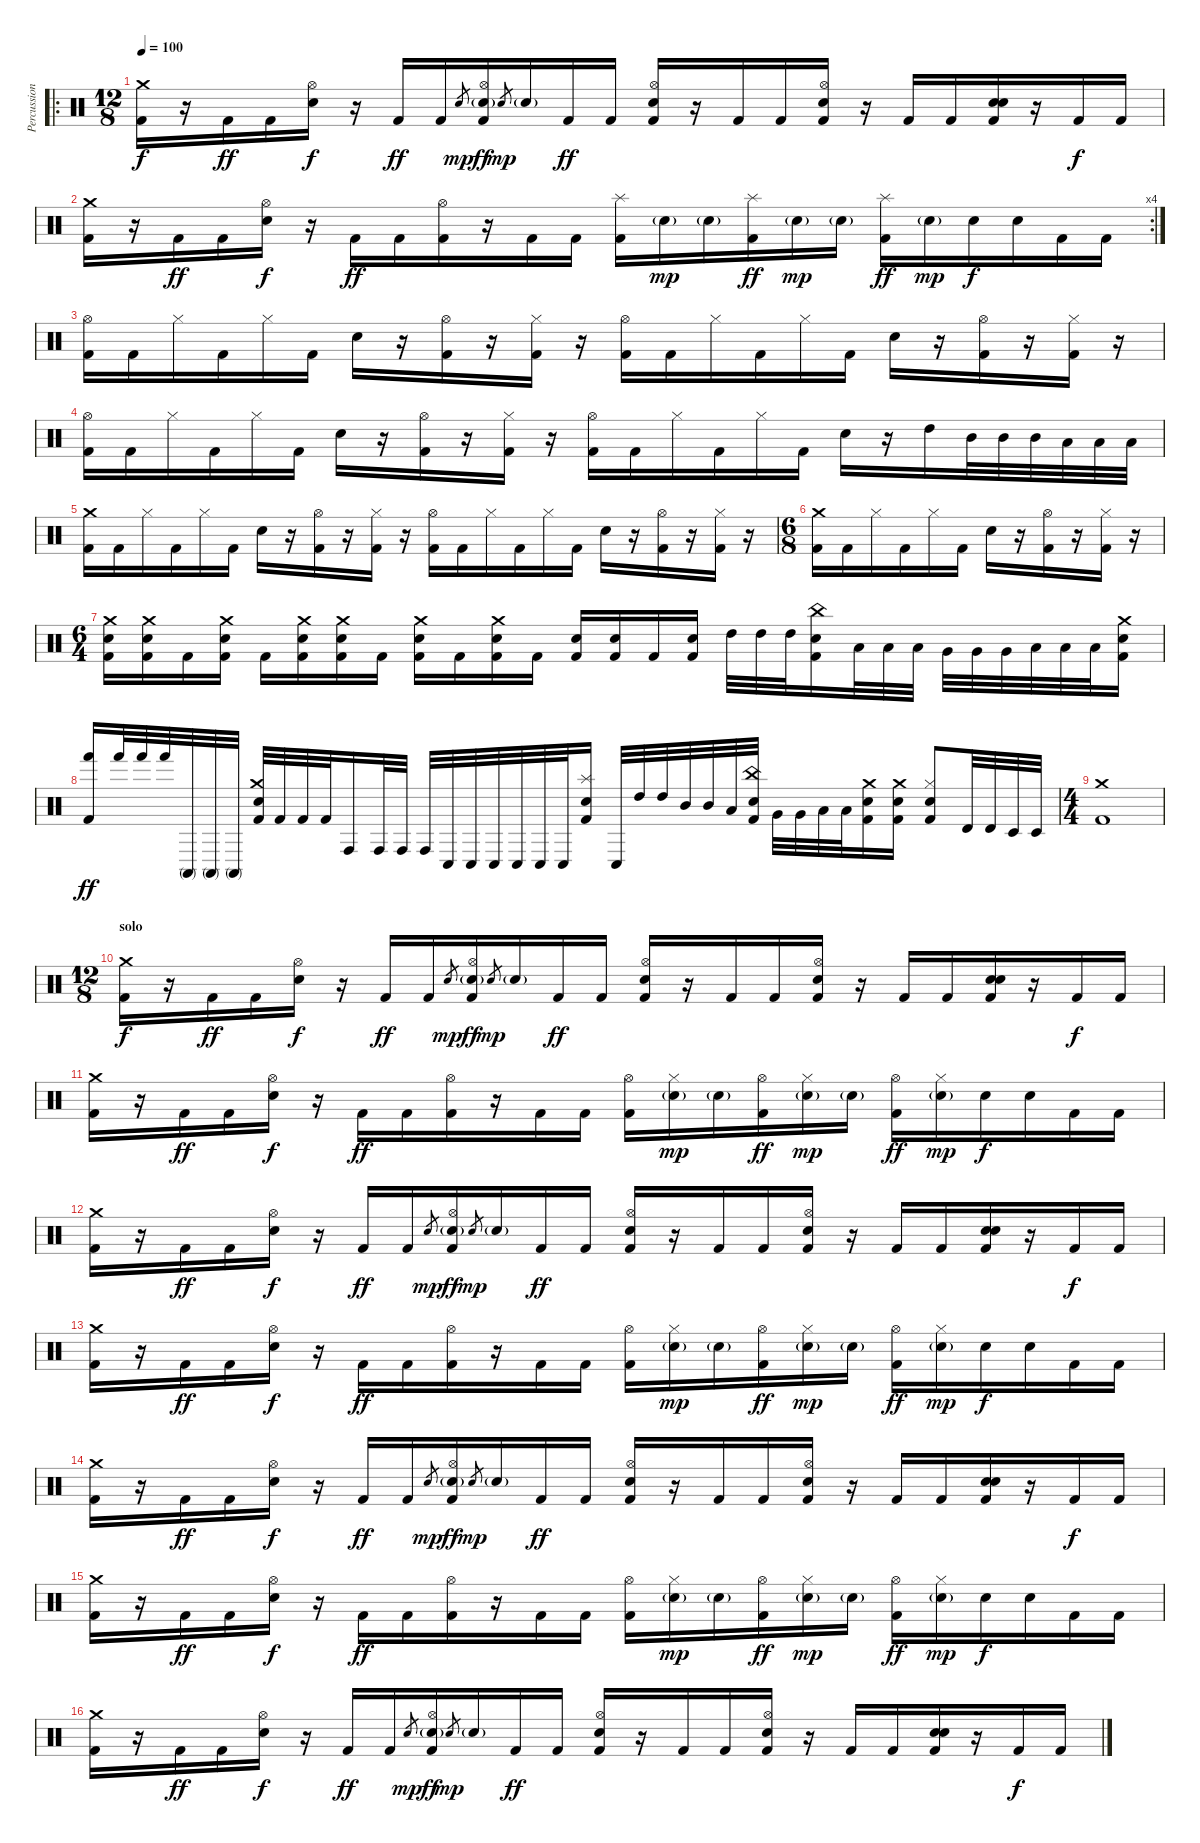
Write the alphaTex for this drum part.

\track ("Percussions" "Percussion") {instrument percussion}
\staff {score}
\articulation defaults
\ro
\ts (12 8)
\tempo 100
\clef neutral
\ks c
("Crash medium (hit)" "Kick (hit) 2").16{dy f} r.16 "Kick (hit) 2".16{dy ff} "Kick (hit) 2".16 ("Hi-Hat (open)" "Electric Snare (hit)").16{dy f} r.16 "Kick (hit) 2".16{dy ff} "Kick (hit) 2".16 "Electric Snare (hit)".8{gr dy mp} ("Hi-Hat (open)" "Electric Snare (hit)"{g} "Kick (hit) 2").16{dy ff} "Electric Snare (hit)".8{gr dy mp} "Electric Snare (hit)"{g}.16 "Kick (hit) 2".16{dy ff} "Kick (hit) 2".16 ("Hi-Hat (open)" "Electric Snare (hit)" "Kick (hit) 2").16 r.16 "Kick (hit) 2".16 "Kick (hit) 2".16 ("Hi-Hat (open)" "Electric Snare (hit)" "Kick (hit) 2").16 r.16 "Kick (hit) 2".16 "Kick (hit) 2".16 ("Electric Snare (hit)" "Electric Snare (hit)" "Kick (hit) 2").16 r.16 "Kick (hit) 2".16{dy f} "Kick (hit) 2".16 |
\rc 4
("Crash medium (hit)" "Kick (hit) 2").16 r.16 "Kick (hit) 2".16{dy ff} "Kick (hit) 2".16 ("Hi-Hat (open)" "Electric Snare (hit)").16{dy f} r.16 "Kick (hit) 2".16{dy ff} "Kick (hit) 2".16 ("Hi-Hat (open)" "Kick (hit) 2").16 r.16 "Kick (hit) 2".16 "Kick (hit) 2".16 ("Splash (hit)" "Kick (hit) 2").16 "Electric Snare (hit)"{g}.16{dy mp} "Electric Snare (hit)"{g}.16 ("Splash (hit)" "Kick (hit) 2").16{dy ff} "Electric Snare (hit)"{g}.16{dy mp} "Electric Snare (hit)"{g}.16 ("Splash (hit)" "Kick (hit) 2").16{dy ff} "Electric Snare (hit)"{g}.16{dy mp} "Electric Snare (hit)".16{dy f} "Electric Snare (hit)".16 "Kick (hit) 2".16 "Kick (hit) 2".16 |
("Hi-Hat (open)" "Kick (hit) 2").16 "Kick (hit) 2".16 "Hi-Hat (closed)".16 "Kick (hit) 2".16 "Hi-Hat (closed)".16 "Kick (hit) 2".16 "Electric Snare (hit)".16 r.16 ("Hi-Hat (open)" "Kick (hit) 2").16 r.16 ("Hi-Hat (closed)" "Kick (hit) 2").16 r.16 ("Hi-Hat (open)" "Kick (hit) 2").16 "Kick (hit) 2".16 "Hi-Hat (closed)".16 "Kick (hit) 2".16 "Hi-Hat (closed)".16 "Kick (hit) 2".16 "Electric Snare (hit)".16 r.16 ("Hi-Hat (open)" "Kick (hit) 2").16 r.16 ("Hi-Hat (closed)" "Kick (hit) 2").16 r.16 |
("Hi-Hat (open)" "Kick (hit) 2").16 "Kick (hit) 2".16 "Hi-Hat (closed)".16 "Kick (hit) 2".16 "Hi-Hat (closed)".16 "Kick (hit) 2".16 "Electric Snare (hit)".16 r.16 ("Hi-Hat (open)" "Kick (hit) 2").16 r.16 ("Hi-Hat (closed)" "Kick (hit) 2").16 r.16 ("Hi-Hat (open)" "Kick (hit) 2").16 "Kick (hit) 2".16 "Hi-Hat (closed)".16 "Kick (hit) 2".16 "Hi-Hat (closed)".16 "Kick (hit) 2".16 "Electric Snare (hit)".16 r.16 "High Tom (hit)".16 "Mid Tom (hit)".32 "Mid Tom (hit)".32 "Mid Tom (hit)".32 "Low Tom (hit)".32 "Low Tom (hit)".32 "Low Tom (hit)".32 |
("Crash medium (hit)" "Kick (hit) 2").16 "Kick (hit) 2".16 "Hi-Hat (closed)".16 "Kick (hit) 2".16 "Hi-Hat (closed)".16 "Kick (hit) 2".16 "Electric Snare (hit)".16 r.16 ("Hi-Hat (open)" "Kick (hit) 2").16 r.16 ("Hi-Hat (closed)" "Kick (hit) 2").16 r.16 ("Hi-Hat (open)" "Kick (hit) 2").16 "Kick (hit) 2".16 "Hi-Hat (closed)".16 "Kick (hit) 2".16 "Hi-Hat (closed)".16 "Kick (hit) 2".16 "Electric Snare (hit)".16 r.16 ("Hi-Hat (open)" "Kick (hit) 2").16 r.16 ("Hi-Hat (closed)" "Kick (hit) 2").16 r.16 |
\ts (6 8)
("Crash medium (hit)" "Kick (hit) 2").16 "Kick (hit) 2".16 "Hi-Hat (closed)".16 "Kick (hit) 2".16 "Hi-Hat (closed)".16 "Kick (hit) 2".16 "Electric Snare (hit)".16 r.16 ("Hi-Hat (open)" "Kick (hit) 2").16 r.16 ("Hi-Hat (closed)" "Kick (hit) 2").16 r.16 |
\ts (6 4)
("Crash medium (hit)" "Electric Snare (hit)" "Kick (hit) 2").16 ("Crash medium (hit)" "Electric Snare (hit)" "Kick (hit) 2").16 "Kick (hit) 2".16 ("Crash medium (hit)" "Electric Snare (hit)" "Kick (hit) 2").16 "Kick (hit) 2".16 ("Crash medium (hit)" "Electric Snare (hit)" "Kick (hit) 2").16 ("Crash medium (hit)" "Electric Snare (hit)" "Kick (hit) 2").16 "Kick (hit) 2".16 ("Crash medium (hit)" "Electric Snare (hit)" "Kick (hit) 2").16 "Kick (hit) 2".16 ("Crash medium (hit)" "Electric Snare (hit)" "Kick (hit) 2").16 "Kick (hit) 2".16 ("Electric Snare (hit)" "Kick (hit) 2").16 ("Electric Snare (hit)" "Kick (hit) 2").16 "Kick (hit) 2".16 ("Electric Snare (hit)" "Kick (hit) 2").16 "High Tom (hit)".32 "High Tom (hit)".32 "High Tom (hit)".32 ("China (hit)" "Electric Snare (hit)" "Kick (hit) 2").16 "Low Tom (hit)".32 "Low Tom (hit)".32 "Low Tom (hit)".32 "Very Low Tom (hit)".32 "Very Low Tom (hit)".32 "Very Low Tom (hit)".32 "Low Floor Tom (hit)".32 "Low Floor Tom (hit)".32 "Low Floor Tom (hit)".32 ("Crash medium (hit)" "Electric Snare (hit)" "Kick (hit) 2").16 |
("Kick (hit) 2" "Hand (hit)").16{dy ff} "Hand (hit)".32 "Hand (hit)".32 "Hand (hit)".32 "Conga high (mute)".32 "Conga high (mute)".32 "Conga high (mute)".32 ("Crash medium (hit)" "Electric Snare (hit)" "Kick (hit) 2").32 "Kick (hit) 2".32 "Kick (hit) 2".32 "Kick (hit) 2".32 "Conga high (hit)".16 "Conga high (hit)".32 "Conga high (hit)".32 "Conga high (hit)".32 "Conga low (hit)".32 "Conga low (hit)".32 "Conga low (hit)".32 "Conga low (hit)".32 "Conga low (hit)".32 "Conga low (hit)".32 ("Splash (hit)" "Electric Snare (hit)" "Kick (hit) 2").16 "Conga low (hit)".32 "High Tom (hit)".32 "High Tom (hit)".32 "Mid Tom (hit)".32 "Mid Tom (hit)".32 "Low Tom (hit)".32 ("China (hit)" "Electric Snare (hit)" "Kick (hit) 2").32 "Very Low Tom (hit)".32 "Very Low Tom (hit)".32 "Low Floor Tom (hit)".32 "Low Floor Tom (hit)".32 ("Crash medium (hit)" "Electric Snare (hit)" "Kick (hit) 2").16 ("Crash medium (hit)" "Electric Snare (hit)" "Kick (hit) 2").16 ("Hi-Hat (closed)" "Electric Snare (hit)" "Kick (hit) 2").8 "Timbale high (hit)".32 "Timbale high (hit)".32 "Timbale low (hit)".32 "Timbale low (hit)".32 |
\ts (4 4)
("Crash medium (hit)" "Kick (hit) 2").1 |
\ts (12 8)
\section ("" "solo")
("Crash medium (hit)" "Kick (hit) 2").16{dy f} r.16 "Kick (hit) 2".16{dy ff} "Kick (hit) 2".16 ("Hi-Hat (open)" "Electric Snare (hit)").16{dy f} r.16 "Kick (hit) 2".16{dy ff} "Kick (hit) 2".16 "Electric Snare (hit)".8{gr dy mp} ("Hi-Hat (open)" "Electric Snare (hit)"{g} "Kick (hit) 2").16{dy ff} "Electric Snare (hit)".8{gr dy mp} "Electric Snare (hit)"{g}.16 "Kick (hit) 2".16{dy ff} "Kick (hit) 2".16 ("Hi-Hat (open)" "Electric Snare (hit)" "Kick (hit) 2").16 r.16 "Kick (hit) 2".16 "Kick (hit) 2".16 ("Hi-Hat (open)" "Electric Snare (hit)" "Kick (hit) 2").16 r.16 "Kick (hit) 2".16 "Kick (hit) 2".16 ("Electric Snare (hit)" "Electric Snare (hit)" "Kick (hit) 2").16 r.16 "Kick (hit) 2".16{dy f} "Kick (hit) 2".16 |
("Crash medium (hit)" "Kick (hit) 2").16 r.16 "Kick (hit) 2".16{dy ff} "Kick (hit) 2".16 ("Hi-Hat (open)" "Electric Snare (hit)").16{dy f} r.16 "Kick (hit) 2".16{dy ff} "Kick (hit) 2".16 ("Hi-Hat (open)" "Kick (hit) 2").16 r.16 "Kick (hit) 2".16 "Kick (hit) 2".16 ("Hi-Hat (open)" "Kick (hit) 2").16 ("Hi-Hat (closed)" "Electric Snare (hit)"{g}).16{dy mp} "Electric Snare (hit)"{g}.16 ("Hi-Hat (open)" "Kick (hit) 2").16{dy ff} ("Hi-Hat (closed)" "Electric Snare (hit)"{g}).16{dy mp} "Electric Snare (hit)"{g}.16 ("Hi-Hat (open)" "Kick (hit) 2").16{dy ff} ("Hi-Hat (closed)" "Electric Snare (hit)"{g}).16{dy mp} "Electric Snare (hit)".16{dy f} "Electric Snare (hit)".16 "Kick (hit) 2".16 "Kick (hit) 2".16 |
("Crash medium (hit)" "Kick (hit) 2").16 r.16 "Kick (hit) 2".16{dy ff} "Kick (hit) 2".16 ("Hi-Hat (open)" "Electric Snare (hit)").16{dy f} r.16 "Kick (hit) 2".16{dy ff} "Kick (hit) 2".16 "Electric Snare (hit)".8{gr dy mp} ("Hi-Hat (open)" "Electric Snare (hit)"{g} "Kick (hit) 2").16{dy ff} "Electric Snare (hit)".8{gr dy mp} "Electric Snare (hit)"{g}.16 "Kick (hit) 2".16{dy ff} "Kick (hit) 2".16 ("Hi-Hat (open)" "Electric Snare (hit)" "Kick (hit) 2").16 r.16 "Kick (hit) 2".16 "Kick (hit) 2".16 ("Hi-Hat (open)" "Electric Snare (hit)" "Kick (hit) 2").16 r.16 "Kick (hit) 2".16 "Kick (hit) 2".16 ("Electric Snare (hit)" "Electric Snare (hit)" "Kick (hit) 2").16 r.16 "Kick (hit) 2".16{dy f} "Kick (hit) 2".16 |
("Crash medium (hit)" "Kick (hit) 2").16 r.16 "Kick (hit) 2".16{dy ff} "Kick (hit) 2".16 ("Hi-Hat (open)" "Electric Snare (hit)").16{dy f} r.16 "Kick (hit) 2".16{dy ff} "Kick (hit) 2".16 ("Hi-Hat (open)" "Kick (hit) 2").16 r.16 "Kick (hit) 2".16 "Kick (hit) 2".16 ("Hi-Hat (open)" "Kick (hit) 2").16 ("Hi-Hat (closed)" "Electric Snare (hit)"{g}).16{dy mp} "Electric Snare (hit)"{g}.16 ("Hi-Hat (open)" "Kick (hit) 2").16{dy ff} ("Hi-Hat (closed)" "Electric Snare (hit)"{g}).16{dy mp} "Electric Snare (hit)"{g}.16 ("Hi-Hat (open)" "Kick (hit) 2").16{dy ff} ("Hi-Hat (closed)" "Electric Snare (hit)"{g}).16{dy mp} "Electric Snare (hit)".16{dy f} "Electric Snare (hit)".16 "Kick (hit) 2".16 "Kick (hit) 2".16 |
("Crash medium (hit)" "Kick (hit) 2").16 r.16 "Kick (hit) 2".16{dy ff} "Kick (hit) 2".16 ("Hi-Hat (open)" "Electric Snare (hit)").16{dy f} r.16 "Kick (hit) 2".16{dy ff} "Kick (hit) 2".16 "Electric Snare (hit)".8{gr dy mp} ("Hi-Hat (open)" "Electric Snare (hit)"{g} "Kick (hit) 2").16{dy ff} "Electric Snare (hit)".8{gr dy mp} "Electric Snare (hit)"{g}.16 "Kick (hit) 2".16{dy ff} "Kick (hit) 2".16 ("Hi-Hat (open)" "Electric Snare (hit)" "Kick (hit) 2").16 r.16 "Kick (hit) 2".16 "Kick (hit) 2".16 ("Hi-Hat (open)" "Electric Snare (hit)" "Kick (hit) 2").16 r.16 "Kick (hit) 2".16 "Kick (hit) 2".16 ("Electric Snare (hit)" "Electric Snare (hit)" "Kick (hit) 2").16 r.16 "Kick (hit) 2".16{dy f} "Kick (hit) 2".16 |
("Crash medium (hit)" "Kick (hit) 2").16 r.16 "Kick (hit) 2".16{dy ff} "Kick (hit) 2".16 ("Hi-Hat (open)" "Electric Snare (hit)").16{dy f} r.16 "Kick (hit) 2".16{dy ff} "Kick (hit) 2".16 ("Hi-Hat (open)" "Kick (hit) 2").16 r.16 "Kick (hit) 2".16 "Kick (hit) 2".16 ("Hi-Hat (open)" "Kick (hit) 2").16 ("Hi-Hat (closed)" "Electric Snare (hit)"{g}).16{dy mp} "Electric Snare (hit)"{g}.16 ("Hi-Hat (open)" "Kick (hit) 2").16{dy ff} ("Hi-Hat (closed)" "Electric Snare (hit)"{g}).16{dy mp} "Electric Snare (hit)"{g}.16 ("Hi-Hat (open)" "Kick (hit) 2").16{dy ff} ("Hi-Hat (closed)" "Electric Snare (hit)"{g}).16{dy mp} "Electric Snare (hit)".16{dy f} "Electric Snare (hit)".16 "Kick (hit) 2".16 "Kick (hit) 2".16 |
("Crash medium (hit)" "Kick (hit) 2").16 r.16 "Kick (hit) 2".16{dy ff} "Kick (hit) 2".16 ("Hi-Hat (open)" "Electric Snare (hit)").16{dy f} r.16 "Kick (hit) 2".16{dy ff} "Kick (hit) 2".16 "Electric Snare (hit)".8{gr dy mp} ("Hi-Hat (open)" "Electric Snare (hit)"{g} "Kick (hit) 2").16{dy ff} "Electric Snare (hit)".8{gr dy mp} "Electric Snare (hit)"{g}.16 "Kick (hit) 2".16{dy ff} "Kick (hit) 2".16 ("Hi-Hat (open)" "Electric Snare (hit)" "Kick (hit) 2").16 r.16 "Kick (hit) 2".16 "Kick (hit) 2".16 ("Hi-Hat (open)" "Electric Snare (hit)" "Kick (hit) 2").16 r.16 "Kick (hit) 2".16 "Kick (hit) 2".16 ("Electric Snare (hit)" "Electric Snare (hit)" "Kick (hit) 2").16 r.16 "Kick (hit) 2".16{dy f} "Kick (hit) 2".16
